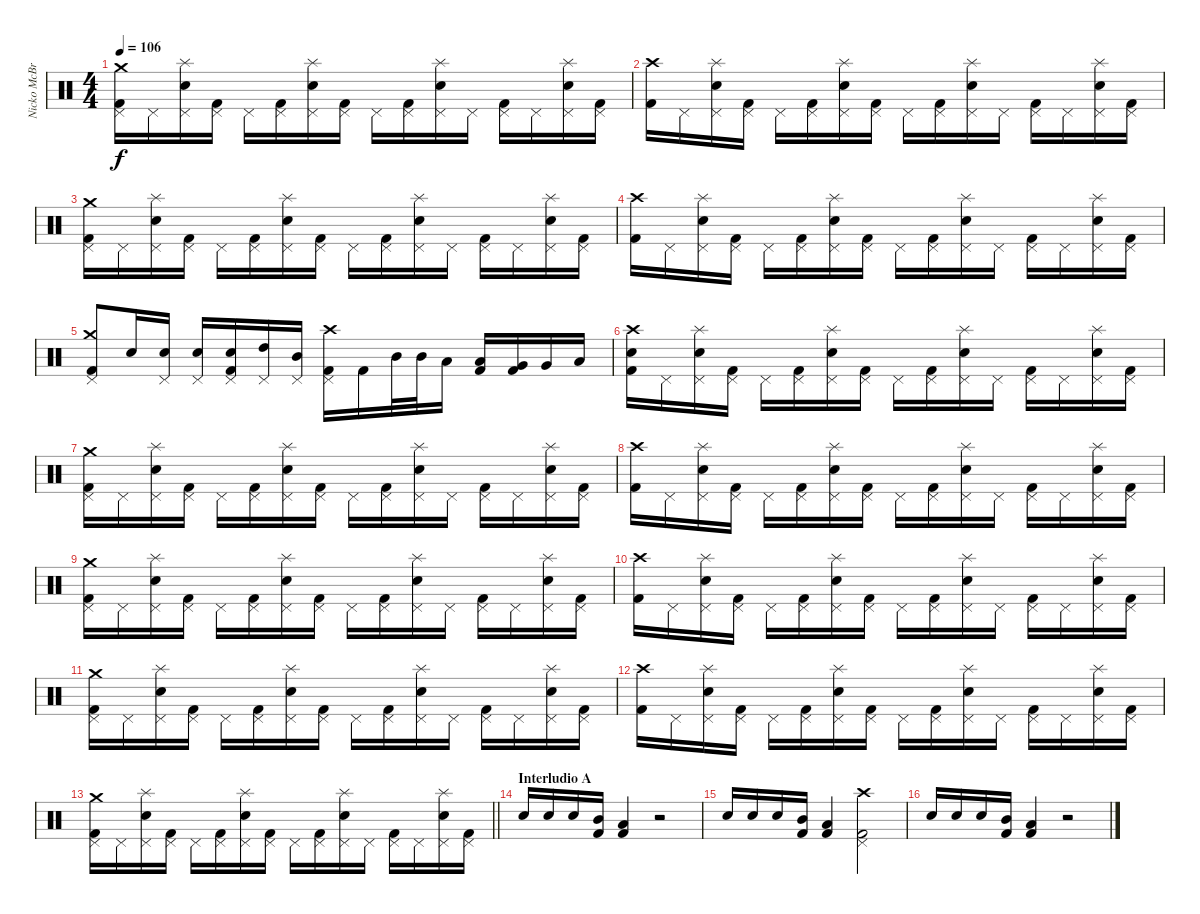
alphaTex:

\track ("Nicko McBrain" "Nicko McBr") {instrument percussion}
\staff {score}
\articulation defaults
\ts (4 4)
\tempo 106
\clef neutral
\ks c
("Pedal Hi-Hat (hit)" "Crash medium (hit)" "Kick (hit) 2").16{dy f} "Pedal Hi-Hat (hit)".16 ("Pedal Hi-Hat (hit)" "Snare (hit) 2" "Splash (hit)").16 ("Pedal Hi-Hat (hit)" "Kick (hit) 2").16 "Pedal Hi-Hat (hit)".16 ("Pedal Hi-Hat (hit)" "Kick (hit) 2").16 ("Pedal Hi-Hat (hit)" "Snare (hit) 2" "Splash (hit)").16 ("Pedal Hi-Hat (hit)" "Kick (hit) 2").16 "Pedal Hi-Hat (hit)".16 ("Pedal Hi-Hat (hit)" "Kick (hit) 2").16 ("Pedal Hi-Hat (hit)" "Snare (hit) 2" "Splash (hit)").16 "Pedal Hi-Hat (hit)".16 ("Pedal Hi-Hat (hit)" "Kick (hit) 2").16 "Pedal Hi-Hat (hit)".16 ("Pedal Hi-Hat (hit)" "Snare (hit) 2" "Splash (hit)").16 ("Pedal Hi-Hat (hit)" "Kick (hit) 2").16 |
("Crash high (hit)" "Kick (hit) 2").16 "Pedal Hi-Hat (hit)".16 ("Pedal Hi-Hat (hit)" "Snare (hit) 2" "Splash (hit)").16 ("Pedal Hi-Hat (hit)" "Kick (hit) 2").16 "Pedal Hi-Hat (hit)".16 ("Pedal Hi-Hat (hit)" "Kick (hit) 2").16 ("Pedal Hi-Hat (hit)" "Snare (hit) 2" "Splash (hit)").16 ("Pedal Hi-Hat (hit)" "Kick (hit) 2").16 "Pedal Hi-Hat (hit)".16 ("Pedal Hi-Hat (hit)" "Kick (hit) 2").16 ("Pedal Hi-Hat (hit)" "Snare (hit) 2" "Splash (hit)").16 "Pedal Hi-Hat (hit)".16 ("Pedal Hi-Hat (hit)" "Kick (hit) 2").16 "Pedal Hi-Hat (hit)".16 ("Pedal Hi-Hat (hit)" "Snare (hit) 2" "Splash (hit)").16 ("Pedal Hi-Hat (hit)" "Kick (hit) 2").16 |
("Pedal Hi-Hat (hit)" "Crash medium (hit)" "Kick (hit) 2").16 "Pedal Hi-Hat (hit)".16 ("Pedal Hi-Hat (hit)" "Snare (hit) 2" "Splash (hit)").16 ("Pedal Hi-Hat (hit)" "Kick (hit) 2").16 "Pedal Hi-Hat (hit)".16 ("Pedal Hi-Hat (hit)" "Kick (hit) 2").16 ("Pedal Hi-Hat (hit)" "Snare (hit) 2" "Splash (hit)").16 ("Pedal Hi-Hat (hit)" "Kick (hit) 2").16 "Pedal Hi-Hat (hit)".16 ("Pedal Hi-Hat (hit)" "Kick (hit) 2").16 ("Pedal Hi-Hat (hit)" "Snare (hit) 2" "Splash (hit)").16 "Pedal Hi-Hat (hit)".16 ("Pedal Hi-Hat (hit)" "Kick (hit) 2").16 "Pedal Hi-Hat (hit)".16 ("Pedal Hi-Hat (hit)" "Snare (hit) 2" "Splash (hit)").16 ("Pedal Hi-Hat (hit)" "Kick (hit) 2").16 |
("Crash high (hit)" "Kick (hit) 2").16 "Pedal Hi-Hat (hit)".16 ("Pedal Hi-Hat (hit)" "Snare (hit) 2" "Splash (hit)").16 ("Pedal Hi-Hat (hit)" "Kick (hit) 2").16 "Pedal Hi-Hat (hit)".16 ("Pedal Hi-Hat (hit)" "Kick (hit) 2").16 ("Pedal Hi-Hat (hit)" "Snare (hit) 2" "Splash (hit)").16 ("Pedal Hi-Hat (hit)" "Kick (hit) 2").16 "Pedal Hi-Hat (hit)".16 ("Pedal Hi-Hat (hit)" "Kick (hit) 2").16 ("Pedal Hi-Hat (hit)" "Snare (hit) 2" "Splash (hit)").16 "Pedal Hi-Hat (hit)".16 ("Pedal Hi-Hat (hit)" "Kick (hit) 2").16 "Pedal Hi-Hat (hit)".16 ("Pedal Hi-Hat (hit)" "Snare (hit) 2" "Splash (hit)").16 ("Pedal Hi-Hat (hit)" "Kick (hit) 2").16 |
("Pedal Hi-Hat (hit)" "Crash medium (hit)" "Kick (hit) 2").8 "Snare (hit) 2".16 ("Pedal Hi-Hat (hit)" "Snare (hit) 2").16 ("Pedal Hi-Hat (hit)" "Snare (hit) 2").16 ("Pedal Hi-Hat (hit)" "Snare (hit) 2" "Kick (hit) 2").16 ("Pedal Hi-Hat (hit)" "High Tom (hit)").16 ("Pedal Hi-Hat (hit)" "Mid Tom (hit)").16 ("Pedal Hi-Hat (hit)" "Crash high (hit)" "Kick (hit) 2").16 "Kick (hit) 2".16 "Mid Tom (hit)".32 "Mid Tom (hit)".32 "Low Tom (hit)".16 ("Low Tom (hit)" "Kick (hit) 2").16 ("Very Low Tom (hit)" "Kick (hit) 2").16 "Very Low Tom (hit)".16 "Low Floor Tom (hit)".16 |
("Snare (hit) 2" "Crash high (hit)" "Kick (hit) 2").16 "Pedal Hi-Hat (hit)".16 ("Pedal Hi-Hat (hit)" "Snare (hit) 2" "Splash (hit)").16 ("Pedal Hi-Hat (hit)" "Kick (hit) 2").16 "Pedal Hi-Hat (hit)".16 ("Pedal Hi-Hat (hit)" "Kick (hit) 2").16 ("Pedal Hi-Hat (hit)" "Snare (hit) 2" "Splash (hit)").16 ("Pedal Hi-Hat (hit)" "Kick (hit) 2").16 "Pedal Hi-Hat (hit)".16 ("Pedal Hi-Hat (hit)" "Kick (hit) 2").16 ("Pedal Hi-Hat (hit)" "Snare (hit) 2" "Splash (hit)").16 "Pedal Hi-Hat (hit)".16 ("Pedal Hi-Hat (hit)" "Kick (hit) 2").16 "Pedal Hi-Hat (hit)".16 ("Pedal Hi-Hat (hit)" "Snare (hit) 2" "Splash (hit)").16 ("Pedal Hi-Hat (hit)" "Kick (hit) 2").16 |
("Pedal Hi-Hat (hit)" "Crash medium (hit)" "Kick (hit) 2").16 "Pedal Hi-Hat (hit)".16 ("Pedal Hi-Hat (hit)" "Snare (hit) 2" "Splash (hit)").16 ("Pedal Hi-Hat (hit)" "Kick (hit) 2").16 "Pedal Hi-Hat (hit)".16 ("Pedal Hi-Hat (hit)" "Kick (hit) 2").16 ("Pedal Hi-Hat (hit)" "Snare (hit) 2" "Splash (hit)").16 ("Pedal Hi-Hat (hit)" "Kick (hit) 2").16 "Pedal Hi-Hat (hit)".16 ("Pedal Hi-Hat (hit)" "Kick (hit) 2").16 ("Pedal Hi-Hat (hit)" "Snare (hit) 2" "Splash (hit)").16 "Pedal Hi-Hat (hit)".16 ("Pedal Hi-Hat (hit)" "Kick (hit) 2").16 "Pedal Hi-Hat (hit)".16 ("Pedal Hi-Hat (hit)" "Snare (hit) 2" "Splash (hit)").16 ("Pedal Hi-Hat (hit)" "Kick (hit) 2").16 |
("Crash high (hit)" "Kick (hit) 2").16 "Pedal Hi-Hat (hit)".16 ("Pedal Hi-Hat (hit)" "Snare (hit) 2" "Splash (hit)").16 ("Pedal Hi-Hat (hit)" "Kick (hit) 2").16 "Pedal Hi-Hat (hit)".16 ("Pedal Hi-Hat (hit)" "Kick (hit) 2").16 ("Pedal Hi-Hat (hit)" "Snare (hit) 2" "Splash (hit)").16 ("Pedal Hi-Hat (hit)" "Kick (hit) 2").16 "Pedal Hi-Hat (hit)".16 ("Pedal Hi-Hat (hit)" "Kick (hit) 2").16 ("Pedal Hi-Hat (hit)" "Snare (hit) 2" "Splash (hit)").16 "Pedal Hi-Hat (hit)".16 ("Pedal Hi-Hat (hit)" "Kick (hit) 2").16 "Pedal Hi-Hat (hit)".16 ("Pedal Hi-Hat (hit)" "Snare (hit) 2" "Splash (hit)").16 ("Pedal Hi-Hat (hit)" "Kick (hit) 2").16 |
("Pedal Hi-Hat (hit)" "Crash medium (hit)" "Kick (hit) 2").16 "Pedal Hi-Hat (hit)".16 ("Pedal Hi-Hat (hit)" "Snare (hit) 2" "Splash (hit)").16 ("Pedal Hi-Hat (hit)" "Kick (hit) 2").16 "Pedal Hi-Hat (hit)".16 ("Pedal Hi-Hat (hit)" "Kick (hit) 2").16 ("Pedal Hi-Hat (hit)" "Snare (hit) 2" "Splash (hit)").16 ("Pedal Hi-Hat (hit)" "Kick (hit) 2").16 "Pedal Hi-Hat (hit)".16 ("Pedal Hi-Hat (hit)" "Kick (hit) 2").16 ("Pedal Hi-Hat (hit)" "Snare (hit) 2" "Splash (hit)").16 "Pedal Hi-Hat (hit)".16 ("Pedal Hi-Hat (hit)" "Kick (hit) 2").16 "Pedal Hi-Hat (hit)".16 ("Pedal Hi-Hat (hit)" "Snare (hit) 2" "Splash (hit)").16 ("Pedal Hi-Hat (hit)" "Kick (hit) 2").16 |
("Crash high (hit)" "Kick (hit) 2").16 "Pedal Hi-Hat (hit)".16 ("Pedal Hi-Hat (hit)" "Snare (hit) 2" "Splash (hit)").16 ("Pedal Hi-Hat (hit)" "Kick (hit) 2").16 "Pedal Hi-Hat (hit)".16 ("Pedal Hi-Hat (hit)" "Kick (hit) 2").16 ("Pedal Hi-Hat (hit)" "Snare (hit) 2" "Splash (hit)").16 ("Pedal Hi-Hat (hit)" "Kick (hit) 2").16 "Pedal Hi-Hat (hit)".16 ("Pedal Hi-Hat (hit)" "Kick (hit) 2").16 ("Pedal Hi-Hat (hit)" "Snare (hit) 2" "Splash (hit)").16 "Pedal Hi-Hat (hit)".16 ("Pedal Hi-Hat (hit)" "Kick (hit) 2").16 "Pedal Hi-Hat (hit)".16 ("Pedal Hi-Hat (hit)" "Snare (hit) 2" "Splash (hit)").16 ("Pedal Hi-Hat (hit)" "Kick (hit) 2").16 |
("Pedal Hi-Hat (hit)" "Crash medium (hit)" "Kick (hit) 2").16 "Pedal Hi-Hat (hit)".16 ("Pedal Hi-Hat (hit)" "Snare (hit) 2" "Splash (hit)").16 ("Pedal Hi-Hat (hit)" "Kick (hit) 2").16 "Pedal Hi-Hat (hit)".16 ("Pedal Hi-Hat (hit)" "Kick (hit) 2").16 ("Pedal Hi-Hat (hit)" "Snare (hit) 2" "Splash (hit)").16 ("Pedal Hi-Hat (hit)" "Kick (hit) 2").16 "Pedal Hi-Hat (hit)".16 ("Pedal Hi-Hat (hit)" "Kick (hit) 2").16 ("Pedal Hi-Hat (hit)" "Snare (hit) 2" "Splash (hit)").16 "Pedal Hi-Hat (hit)".16 ("Pedal Hi-Hat (hit)" "Kick (hit) 2").16 "Pedal Hi-Hat (hit)".16 ("Pedal Hi-Hat (hit)" "Snare (hit) 2" "Splash (hit)").16 ("Pedal Hi-Hat (hit)" "Kick (hit) 2").16 |
("Crash high (hit)" "Kick (hit) 2").16 "Pedal Hi-Hat (hit)".16 ("Pedal Hi-Hat (hit)" "Snare (hit) 2" "Splash (hit)").16 ("Pedal Hi-Hat (hit)" "Kick (hit) 2").16 "Pedal Hi-Hat (hit)".16 ("Pedal Hi-Hat (hit)" "Kick (hit) 2").16 ("Pedal Hi-Hat (hit)" "Snare (hit) 2" "Splash (hit)").16 ("Pedal Hi-Hat (hit)" "Kick (hit) 2").16 "Pedal Hi-Hat (hit)".16 ("Pedal Hi-Hat (hit)" "Kick (hit) 2").16 ("Pedal Hi-Hat (hit)" "Snare (hit) 2" "Splash (hit)").16 "Pedal Hi-Hat (hit)".16 ("Pedal Hi-Hat (hit)" "Kick (hit) 2").16 "Pedal Hi-Hat (hit)".16 ("Pedal Hi-Hat (hit)" "Snare (hit) 2" "Splash (hit)").16 ("Pedal Hi-Hat (hit)" "Kick (hit) 2").16 |
\barLineRight lightlight
("Pedal Hi-Hat (hit)" "Crash medium (hit)" "Kick (hit) 2").16 "Pedal Hi-Hat (hit)".16 ("Pedal Hi-Hat (hit)" "Snare (hit) 2" "Splash (hit)").16 ("Pedal Hi-Hat (hit)" "Kick (hit) 2").16 "Pedal Hi-Hat (hit)".16 ("Pedal Hi-Hat (hit)" "Kick (hit) 2").16 ("Pedal Hi-Hat (hit)" "Snare (hit) 2" "Splash (hit)").16 ("Pedal Hi-Hat (hit)" "Kick (hit) 2").16 "Pedal Hi-Hat (hit)".16 ("Pedal Hi-Hat (hit)" "Kick (hit) 2").16 ("Pedal Hi-Hat (hit)" "Snare (hit) 2" "Splash (hit)").16 "Pedal Hi-Hat (hit)".16 ("Pedal Hi-Hat (hit)" "Kick (hit) 2").16 "Pedal Hi-Hat (hit)".16 ("Pedal Hi-Hat (hit)" "Snare (hit) 2" "Splash (hit)").16 ("Pedal Hi-Hat (hit)" "Kick (hit) 2").16 |
\section ("" "Interludio A")
"Snare (hit) 2".16 "Snare (hit) 2".16 "Snare (hit) 2".16 ("Mid Tom (hit)" "Kick (hit) 2").16 ("Low Tom (hit)" "Kick (hit) 2").4 r.2 |
"Snare (hit) 2".16 "Snare (hit) 2".16 "Snare (hit) 2".16 ("Mid Tom (hit)" "Kick (hit) 2").16 ("Low Tom (hit)" "Kick (hit) 2").4 ("Kick (hit) 2" "Pedal Hi-Hat (hit)" "Crash high (hit)").2 |
"Snare (hit) 2".16 "Snare (hit) 2".16 "Snare (hit) 2".16 ("Mid Tom (hit)" "Kick (hit) 2").16 ("Low Tom (hit)" "Kick (hit) 2").4 r.2
